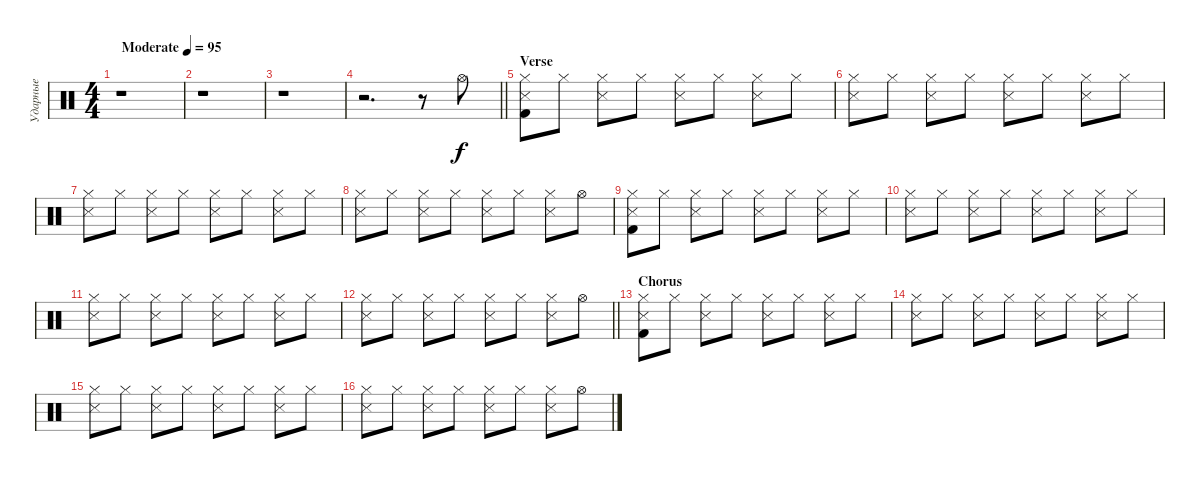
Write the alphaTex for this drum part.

\track ("Ударные" "Ударные") {instrument percussion}
\staff {score}
\articulation defaults
\ts (4 4)
\tempo (95 "Moderate")
\clef neutral
\ks c
r.1{dy f} |
r.1 |
r.1 |
\barLineRight lightlight
r.2{d} r.8 "Hi-Hat (open)".8 |
\section ("" "Verse")
("Hi-Hat (closed)" "Snare (side stick) 3" "Kick (hit) 2").8 "Hi-Hat (closed)".8 ("Hi-Hat (closed)" "Snare (side stick) 3").8 "Hi-Hat (closed)".8 ("Hi-Hat (closed)" "Snare (side stick) 3").8 "Hi-Hat (closed)".8 ("Hi-Hat (closed)" "Snare (side stick) 3").8 "Hi-Hat (closed)".8 |
("Hi-Hat (closed)" "Snare (side stick) 3").8 "Hi-Hat (closed)".8 ("Hi-Hat (closed)" "Snare (side stick) 3").8 "Hi-Hat (closed)".8 ("Hi-Hat (closed)" "Snare (side stick) 3").8 "Hi-Hat (closed)".8 ("Hi-Hat (closed)" "Snare (side stick) 3").8 "Hi-Hat (closed)".8 |
("Hi-Hat (closed)" "Snare (side stick) 3").8 "Hi-Hat (closed)".8 ("Hi-Hat (closed)" "Snare (side stick) 3").8 "Hi-Hat (closed)".8 ("Hi-Hat (closed)" "Snare (side stick) 3").8 "Hi-Hat (closed)".8 ("Hi-Hat (closed)" "Snare (side stick) 3").8 "Hi-Hat (closed)".8 |
("Hi-Hat (closed)" "Snare (side stick) 3").8 "Hi-Hat (closed)".8 ("Hi-Hat (closed)" "Snare (side stick) 3").8 "Hi-Hat (closed)".8 ("Hi-Hat (closed)" "Snare (side stick) 3").8 "Hi-Hat (closed)".8 ("Hi-Hat (closed)" "Snare (side stick) 3").8 "Hi-Hat (open)".8 |
("Hi-Hat (closed)" "Snare (side stick) 3" "Kick (hit) 2").8 "Hi-Hat (closed)".8 ("Hi-Hat (closed)" "Snare (side stick) 3").8 "Hi-Hat (closed)".8 ("Hi-Hat (closed)" "Snare (side stick) 3").8 "Hi-Hat (closed)".8 ("Hi-Hat (closed)" "Snare (side stick) 3").8 "Hi-Hat (closed)".8 |
("Hi-Hat (closed)" "Snare (side stick) 3").8 "Hi-Hat (closed)".8 ("Hi-Hat (closed)" "Snare (side stick) 3").8 "Hi-Hat (closed)".8 ("Hi-Hat (closed)" "Snare (side stick) 3").8 "Hi-Hat (closed)".8 ("Hi-Hat (closed)" "Snare (side stick) 3").8 "Hi-Hat (closed)".8 |
("Hi-Hat (closed)" "Snare (side stick) 3").8 "Hi-Hat (closed)".8 ("Hi-Hat (closed)" "Snare (side stick) 3").8 "Hi-Hat (closed)".8 ("Hi-Hat (closed)" "Snare (side stick) 3").8 "Hi-Hat (closed)".8 ("Hi-Hat (closed)" "Snare (side stick) 3").8 "Hi-Hat (closed)".8 |
\barLineRight lightlight
("Hi-Hat (closed)" "Snare (side stick) 3").8 "Hi-Hat (closed)".8 ("Hi-Hat (closed)" "Snare (side stick) 3").8 "Hi-Hat (closed)".8 ("Hi-Hat (closed)" "Snare (side stick) 3").8 "Hi-Hat (closed)".8 ("Hi-Hat (closed)" "Snare (side stick) 3").8 "Hi-Hat (open)".8 |
\section ("" "Chorus")
("Hi-Hat (closed)" "Snare (side stick) 3" "Kick (hit) 2").8 "Hi-Hat (closed)".8 ("Hi-Hat (closed)" "Snare (side stick) 3").8 "Hi-Hat (closed)".8 ("Hi-Hat (closed)" "Snare (side stick) 3").8 "Hi-Hat (closed)".8 ("Hi-Hat (closed)" "Snare (side stick) 3").8 "Hi-Hat (closed)".8 |
("Hi-Hat (closed)" "Snare (side stick) 3").8 "Hi-Hat (closed)".8 ("Hi-Hat (closed)" "Snare (side stick) 3").8 "Hi-Hat (closed)".8 ("Hi-Hat (closed)" "Snare (side stick) 3").8 "Hi-Hat (closed)".8 ("Hi-Hat (closed)" "Snare (side stick) 3").8 "Hi-Hat (closed)".8 |
("Hi-Hat (closed)" "Snare (side stick) 3").8 "Hi-Hat (closed)".8 ("Hi-Hat (closed)" "Snare (side stick) 3").8 "Hi-Hat (closed)".8 ("Hi-Hat (closed)" "Snare (side stick) 3").8 "Hi-Hat (closed)".8 ("Hi-Hat (closed)" "Snare (side stick) 3").8 "Hi-Hat (closed)".8 |
("Hi-Hat (closed)" "Snare (side stick) 3").8 "Hi-Hat (closed)".8 ("Hi-Hat (closed)" "Snare (side stick) 3").8 "Hi-Hat (closed)".8 ("Hi-Hat (closed)" "Snare (side stick) 3").8 "Hi-Hat (closed)".8 ("Hi-Hat (closed)" "Snare (side stick) 3").8 "Hi-Hat (open)".8
